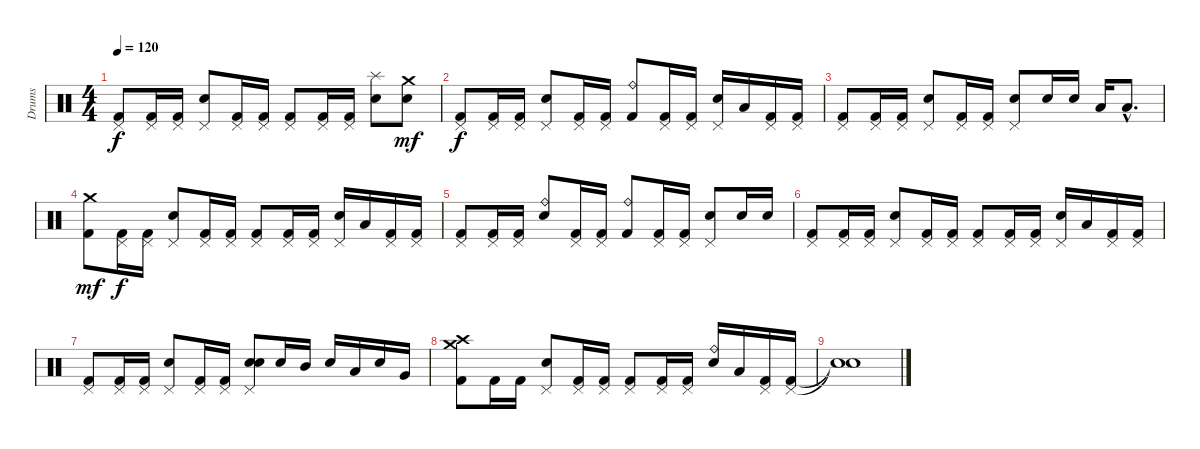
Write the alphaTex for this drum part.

\track ("Drums" "Drums") {instrument percussion}
\staff {score}
\articulation defaults
\ts (4 4)
\tempo 120
\clef neutral
\ks c
("Pedal Hi-Hat (hit)" "Kick (hit) 2").8{dy f} ("Pedal Hi-Hat (hit)" "Kick (hit) 2").16 ("Pedal Hi-Hat (hit)" "Kick (hit) 2").16 ("Pedal Hi-Hat (hit)" "Electric Snare (hit)").8 ("Pedal Hi-Hat (hit)" "Kick (hit) 2").16 ("Pedal Hi-Hat (hit)" "Kick (hit) 2").16 ("Pedal Hi-Hat (hit)" "Kick (hit) 2").8 ("Pedal Hi-Hat (hit)" "Kick (hit) 2").16 ("Pedal Hi-Hat (hit)" "Kick (hit) 2").16 ("Splash (hit)" "Electric Snare (hit)").8 ("Crash medium (hit)" "Electric Snare (hit)").8{dy mf} |
("Pedal Hi-Hat (hit)" "Kick (hit) 2").8{dy f} ("Pedal Hi-Hat (hit)" "Kick (hit) 2").16 ("Pedal Hi-Hat (hit)" "Kick (hit) 2").16 ("Pedal Hi-Hat (hit)" "Electric Snare (hit)").8 ("Pedal Hi-Hat (hit)" "Kick (hit) 2").16 ("Pedal Hi-Hat (hit)" "Kick (hit) 2").16 ("Ride (bell)" "Kick (hit) 2").8 ("Pedal Hi-Hat (hit)" "Kick (hit) 2").16 ("Pedal Hi-Hat (hit)" "Kick (hit) 2").16 ("Pedal Hi-Hat (hit)" "Electric Snare (hit)").16 "Low Tom (hit)".16 ("Pedal Hi-Hat (hit)" "Kick (hit) 2").16 ("Pedal Hi-Hat (hit)" "Kick (hit) 2").16 |
("Pedal Hi-Hat (hit)" "Kick (hit) 2").8 ("Pedal Hi-Hat (hit)" "Kick (hit) 2").16 ("Pedal Hi-Hat (hit)" "Kick (hit) 2").16 ("Pedal Hi-Hat (hit)" "Electric Snare (hit)").8 ("Pedal Hi-Hat (hit)" "Kick (hit) 2").16 ("Pedal Hi-Hat (hit)" "Kick (hit) 2").16 ("Pedal Hi-Hat (hit)" "Electric Snare (hit)").8 "Electric Snare (hit)".16 "Electric Snare (hit)".16 "Low Tom (hit)".16 "Low Floor Tom (hit)"{hac}.8{d} |
("Crash medium (hit)" "Kick (hit) 2").8{dy mf volume 3} ("Pedal Hi-Hat (hit)" "Kick (hit) 2").16{dy f} ("Pedal Hi-Hat (hit)" "Kick (hit) 2").16 ("Pedal Hi-Hat (hit)" "Electric Snare (hit)").8 ("Pedal Hi-Hat (hit)" "Kick (hit) 2").16 ("Pedal Hi-Hat (hit)" "Kick (hit) 2").16 ("Pedal Hi-Hat (hit)" "Kick (hit) 2").8 ("Pedal Hi-Hat (hit)" "Kick (hit) 2").16 ("Pedal Hi-Hat (hit)" "Kick (hit) 2").16 ("Pedal Hi-Hat (hit)" "Electric Snare (hit)").16 "Low Tom (hit)".16 ("Pedal Hi-Hat (hit)" "Kick (hit) 2").16 ("Pedal Hi-Hat (hit)" "Kick (hit) 2").16 |
("Pedal Hi-Hat (hit)" "Kick (hit) 2").8 ("Pedal Hi-Hat (hit)" "Kick (hit) 2").16 ("Pedal Hi-Hat (hit)" "Kick (hit) 2").16 ("Ride (bell)" "Electric Snare (hit)").8 ("Pedal Hi-Hat (hit)" "Kick (hit) 2").16 ("Pedal Hi-Hat (hit)" "Kick (hit) 2").16 ("Ride (bell)" "Kick (hit) 2").8 ("Pedal Hi-Hat (hit)" "Kick (hit) 2").16 ("Pedal Hi-Hat (hit)" "Kick (hit) 2").16 ("Pedal Hi-Hat (hit)" "Electric Snare (hit)").8 "Electric Snare (hit)".16 "Electric Snare (hit)".16 |
("Pedal Hi-Hat (hit)" "Kick (hit) 2").8 ("Pedal Hi-Hat (hit)" "Kick (hit) 2").16 ("Pedal Hi-Hat (hit)" "Kick (hit) 2").16 ("Pedal Hi-Hat (hit)" "Electric Snare (hit)").8 ("Pedal Hi-Hat (hit)" "Kick (hit) 2").16 ("Pedal Hi-Hat (hit)" "Kick (hit) 2").16 ("Pedal Hi-Hat (hit)" "Kick (hit) 2").8 ("Pedal Hi-Hat (hit)" "Kick (hit) 2").16 ("Pedal Hi-Hat (hit)" "Kick (hit) 2").16 ("Pedal Hi-Hat (hit)" "Electric Snare (hit)").16 "Low Tom (hit)".16 ("Pedal Hi-Hat (hit)" "Kick (hit) 2").16 ("Pedal Hi-Hat (hit)" "Kick (hit) 2").16 |
("Pedal Hi-Hat (hit)" "Kick (hit) 2").8 ("Pedal Hi-Hat (hit)" "Kick (hit) 2").16 ("Pedal Hi-Hat (hit)" "Kick (hit) 2").16 ("Pedal Hi-Hat (hit)" "Electric Snare (hit)").8 ("Pedal Hi-Hat (hit)" "Kick (hit) 2").16 ("Pedal Hi-Hat (hit)" "Kick (hit) 2").16 ("Pedal Hi-Hat (hit)" "Electric Snare (hit)" "Electric Snare (hit)").8{bd 240} "Electric Snare (hit)".16 "Mid Tom (hit)".16 "Electric Snare (hit)".16 "Low Tom (hit)".16 "Electric Snare (hit)".16 "Very Low Tom (hit)".16 |
("Crash medium (hit)" "Crash high (hit)" "Kick (hit) 2").8{volume 0} "Kick (hit) 2".16 "Kick (hit) 2".16 ("Pedal Hi-Hat (hit)" "Electric Snare (hit)").8 ("Pedal Hi-Hat (hit)" "Kick (hit) 2").16 ("Pedal Hi-Hat (hit)" "Kick (hit) 2").16 ("Pedal Hi-Hat (hit)" "Kick (hit) 2").8 ("Pedal Hi-Hat (hit)" "Kick (hit) 2").16 ("Pedal Hi-Hat (hit)" "Kick (hit) 2").16 ("Ride (bell)" "Electric Snare (hit)").16 "Low Tom (hit)".16 ("Pedal Hi-Hat (hit)" "Kick (hit) 2").16 ("Pedal Hi-Hat (hit)" "Kick (hit) 2").16 |
("Snare (hit)"{t} "Snare (hit)"{t}).1
